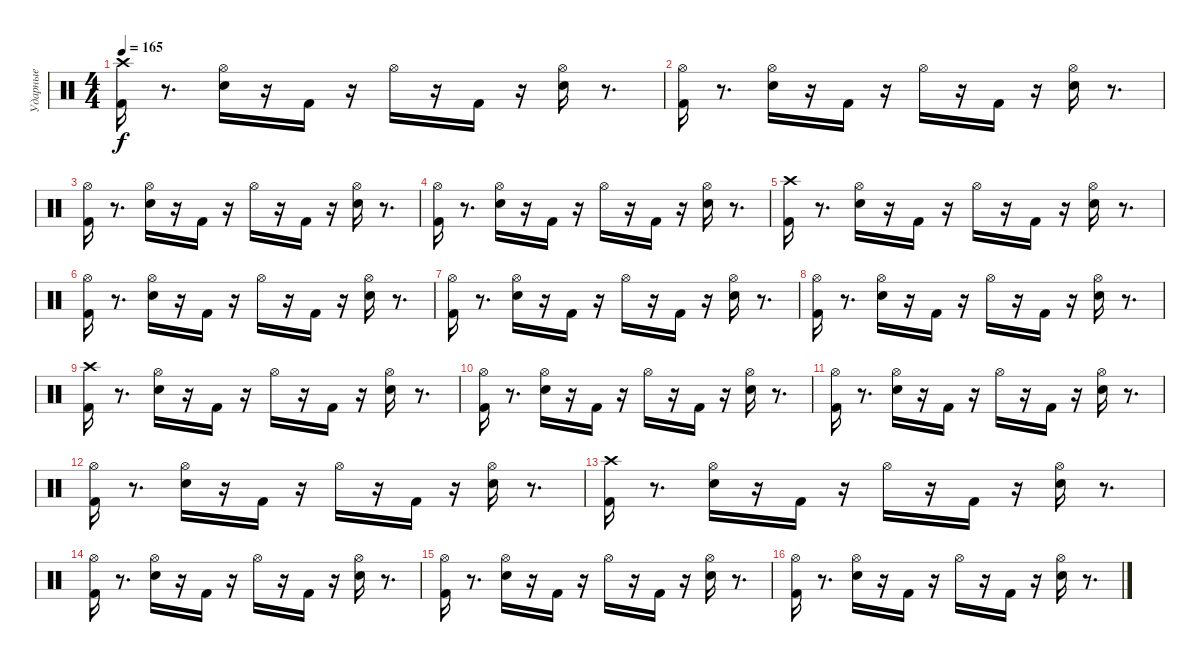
\track ("Ударные" "Ударные") {instrument percussion}
\staff {score}
\articulation defaults
\ts (4 4)
\tempo 165
\clef neutral
\ks c
("Kick (hit) 2" "Crash high (hit)").16{dy f} r.8{d} ("Hi-Hat (open)" "Electric Snare (hit)").16 r.16 "Kick (hit) 2".16 r.16 "Hi-Hat (open)".16 r.16 "Kick (hit) 2".16 r.16 ("Electric Snare (hit)" "Hi-Hat (open)").16 r.8{d} |
("Kick (hit) 2" "Hi-Hat (open)").16 r.8{d} ("Hi-Hat (open)" "Electric Snare (hit)").16 r.16 "Kick (hit) 2".16 r.16 "Hi-Hat (open)".16 r.16 "Kick (hit) 2".16 r.16 ("Electric Snare (hit)" "Hi-Hat (open)").16 r.8{d} |
("Kick (hit) 2" "Hi-Hat (open)").16 r.8{d} ("Electric Snare (hit)" "Hi-Hat (open)").16 r.16 "Kick (hit) 2".16 r.16 "Hi-Hat (open)".16 r.16 "Kick (hit) 2".16 r.16 ("Electric Snare (hit)" "Hi-Hat (open)").16 r.8{d} |
("Kick (hit) 2" "Hi-Hat (open)").16 r.8{d} ("Electric Snare (hit)" "Hi-Hat (open)").16 r.16 "Kick (hit) 2".16 r.16 "Hi-Hat (open)".16 r.16 "Kick (hit) 2".16 r.16 ("Electric Snare (hit)" "Hi-Hat (open)").16 r.8{d} |
("Kick (hit) 2" "Crash high (hit)").16 r.8{d} ("Hi-Hat (open)" "Electric Snare (hit)").16 r.16 "Kick (hit) 2".16 r.16 "Hi-Hat (open)".16 r.16 "Kick (hit) 2".16 r.16 ("Electric Snare (hit)" "Hi-Hat (open)").16 r.8{d} |
("Kick (hit) 2" "Hi-Hat (open)").16 r.8{d} ("Hi-Hat (open)" "Electric Snare (hit)").16 r.16 "Kick (hit) 2".16 r.16 "Hi-Hat (open)".16 r.16 "Kick (hit) 2".16 r.16 ("Electric Snare (hit)" "Hi-Hat (open)").16 r.8{d} |
("Kick (hit) 2" "Hi-Hat (open)").16 r.8{d} ("Electric Snare (hit)" "Hi-Hat (open)").16 r.16 "Kick (hit) 2".16 r.16 "Hi-Hat (open)".16 r.16 "Kick (hit) 2".16 r.16 ("Electric Snare (hit)" "Hi-Hat (open)").16 r.8{d} |
("Kick (hit) 2" "Hi-Hat (open)").16 r.8{d} ("Electric Snare (hit)" "Hi-Hat (open)").16 r.16 "Kick (hit) 2".16 r.16 "Hi-Hat (open)".16 r.16 "Kick (hit) 2".16 r.16 ("Electric Snare (hit)" "Hi-Hat (open)").16 r.8{d} |
("Kick (hit) 2" "Crash high (hit)").16 r.8{d} ("Hi-Hat (open)" "Electric Snare (hit)").16 r.16 "Kick (hit) 2".16 r.16 "Hi-Hat (open)".16 r.16 "Kick (hit) 2".16 r.16 ("Electric Snare (hit)" "Hi-Hat (open)").16 r.8{d} |
("Hi-Hat (open)" "Kick (hit) 2").16 r.8{d} ("Hi-Hat (open)" "Electric Snare (hit)").16 r.16 "Kick (hit) 2".16 r.16 "Hi-Hat (open)".16 r.16 "Kick (hit) 2".16 r.16 ("Hi-Hat (open)" "Electric Snare (hit)").16 r.8{d} |
("Hi-Hat (open)" "Kick (hit) 2").16 r.8{d} ("Electric Snare (hit)" "Hi-Hat (open)").16 r.16 "Kick (hit) 2".16 r.16 "Hi-Hat (open)".16 r.16 "Kick (hit) 2".16 r.16 ("Hi-Hat (open)" "Electric Snare (hit)").16 r.8{d} |
("Hi-Hat (open)" "Kick (hit) 2").16 r.8{d} ("Electric Snare (hit)" "Hi-Hat (open)").16 r.16 "Kick (hit) 2".16 r.16 "Hi-Hat (open)".16 r.16 "Kick (hit) 2".16 r.16 ("Hi-Hat (open)" "Electric Snare (hit)").16 r.8{d} |
("Crash high (hit)" "Kick (hit) 2").16 r.8{d} ("Hi-Hat (open)" "Electric Snare (hit)").16 r.16 "Kick (hit) 2".16 r.16 "Hi-Hat (open)".16 r.16 "Kick (hit) 2".16 r.16 ("Hi-Hat (open)" "Electric Snare (hit)").16 r.8{d} |
("Hi-Hat (open)" "Kick (hit) 2").16 r.8{d} ("Hi-Hat (open)" "Electric Snare (hit)").16 r.16 "Kick (hit) 2".16 r.16 "Hi-Hat (open)".16 r.16 "Kick (hit) 2".16 r.16 ("Hi-Hat (open)" "Electric Snare (hit)").16 r.8{d} |
("Kick (hit) 2" "Hi-Hat (open)").16 r.8{d} ("Electric Snare (hit)" "Hi-Hat (open)").16 r.16 "Kick (hit) 2".16 r.16 "Hi-Hat (open)".16 r.16 "Kick (hit) 2".16 r.16 ("Electric Snare (hit)" "Hi-Hat (open)").16 r.8{d} |
("Kick (hit) 2" "Hi-Hat (open)").16 r.8{d} ("Electric Snare (hit)" "Hi-Hat (open)").16 r.16 "Kick (hit) 2".16 r.16 "Hi-Hat (open)".16 r.16 "Kick (hit) 2".16 r.16 ("Electric Snare (hit)" "Hi-Hat (open)").16 r.8{d}
